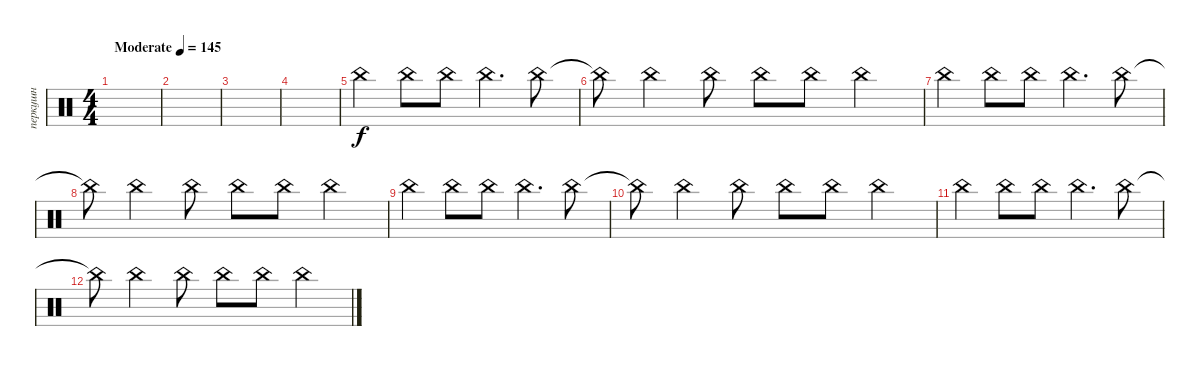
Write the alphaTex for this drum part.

\track ("перкушн" "перкушн") {instrument percussion}
\staff {score}
\articulation defaults
\ts (4 4)
\tempo (145 "Moderate")
\clef neutral
\ks c
|
|
|
|
"China (hit)".4 "China (hit)".8 "China (hit)".8 "China (hit)".4{d} "China (hit)".8 |
"China (hit)"{t}.8 "China (hit)".4 "China (hit)".8 "China (hit)".8 "China (hit)".8 "China (hit)".4 |
"China (hit)".4 "China (hit)".8 "China (hit)".8 "China (hit)".4{d} "China (hit)".8 |
"China (hit)"{t}.8 "China (hit)".4 "China (hit)".8 "China (hit)".8 "China (hit)".8 "China (hit)".4 |
"China (hit)".4 "China (hit)".8 "China (hit)".8 "China (hit)".4{d} "China (hit)".8 |
"China (hit)"{t}.8 "China (hit)".4 "China (hit)".8 "China (hit)".8 "China (hit)".8 "China (hit)".4 |
"China (hit)".4 "China (hit)".8 "China (hit)".8 "China (hit)".4{d} "China (hit)".8 |
"China (hit)"{t}.8 "China (hit)".4 "China (hit)".8 "China (hit)".8 "China (hit)".8 "China (hit)".4
